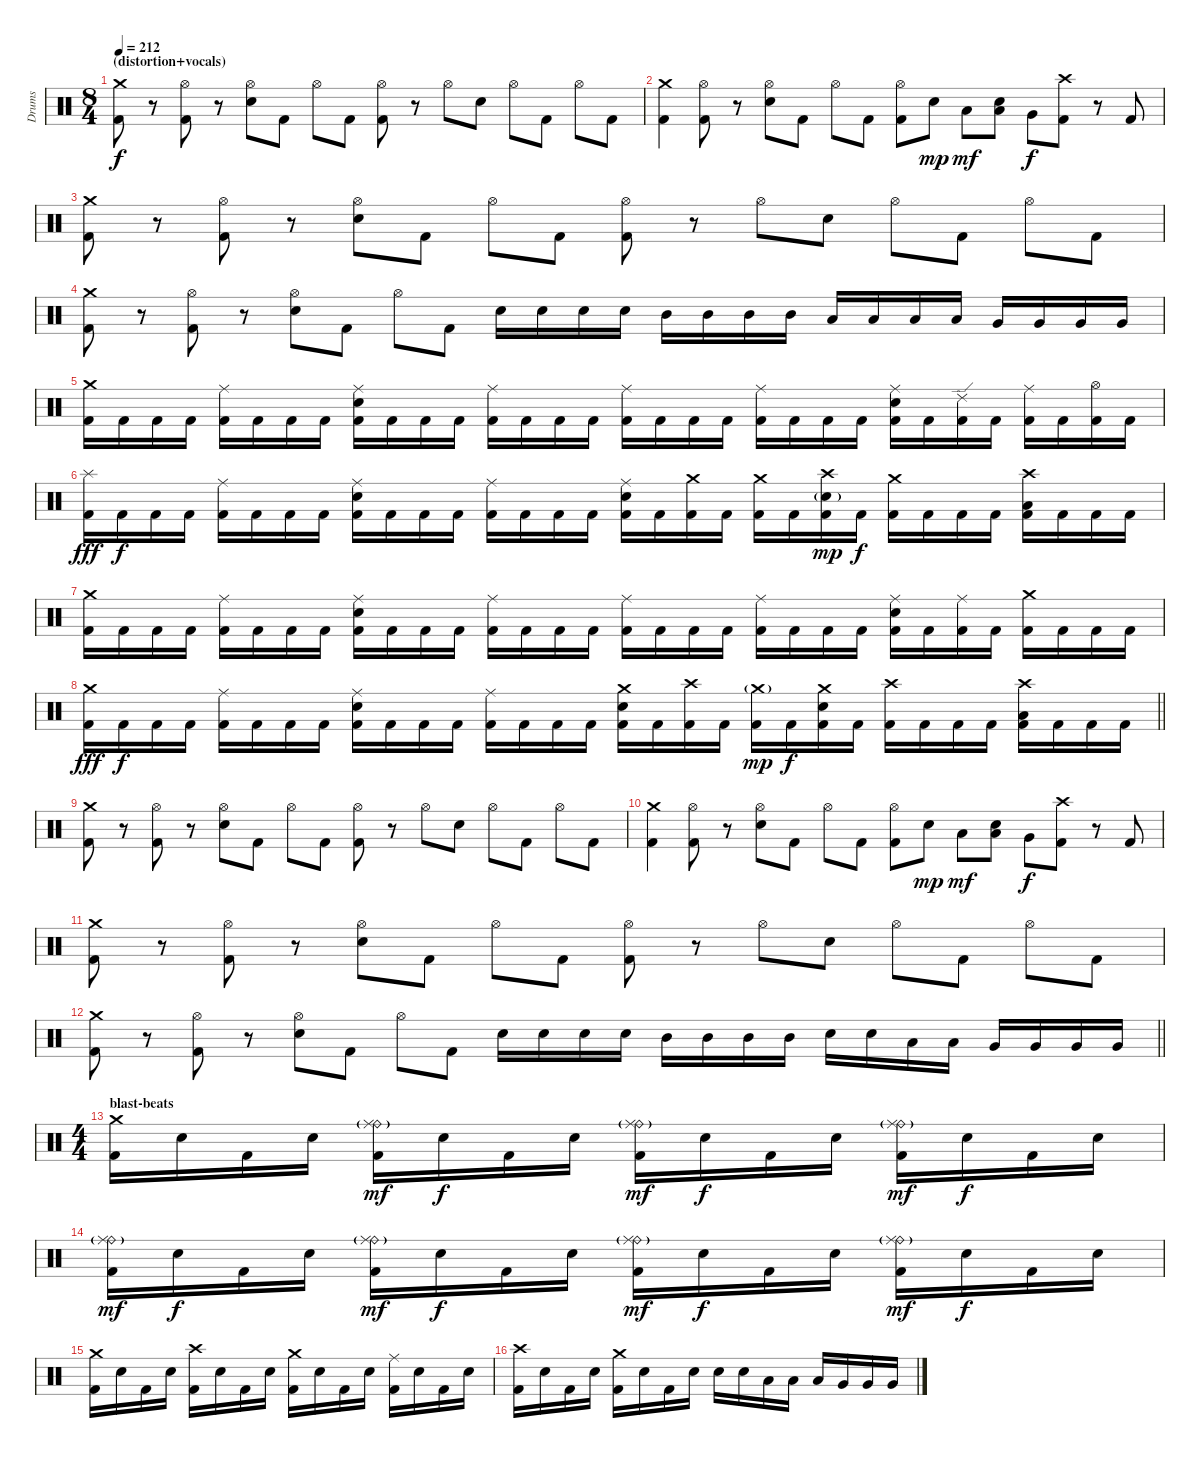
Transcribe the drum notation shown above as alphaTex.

\track ("Drums" "Drums") {instrument percussion}
\staff {score}
\articulation defaults
\ts (8 4)
\section ("" "(distortion+vocals)")
\tempo 212
\clef neutral
\ks c
("Crash medium (hit)" "Kick (hit) 2").8{dy f} r.8 ("Hi-Hat (open)" "Kick (hit) 2").8 r.8 ("Hi-Hat (open)" "Electric Snare (hit)").8 "Kick (hit) 2".8 "Hi-Hat (open)".8 "Kick (hit) 2".8 ("Hi-Hat (open)" "Kick (hit) 2").8 r.8 "Hi-Hat (open)".8 "Electric Snare (hit)".8 "Hi-Hat (open)".8 "Kick (hit) 2".8 "Hi-Hat (open)".8 "Kick (hit) 2".8 |
("Crash medium (hit)" "Kick (hit) 2").4 ("Hi-Hat (open)" "Kick (hit) 2").8 r.8 ("Hi-Hat (open)" "Electric Snare (hit)").8 "Kick (hit) 2".8 "Hi-Hat (open)".8 "Kick (hit) 2".8 ("Hi-Hat (open)" "Kick (hit) 2").8 "Electric Snare (hit)".8{dy mp} "Low Tom (hit)".8{dy mf} ("Low Tom (hit)" "Electric Snare (hit)").8 "Very Low Tom (hit)".8{dy f} ("Crash high (hit)" "Kick (hit) 2").8 r.8 "Kick (hit) 2".8 |
("Crash medium (hit)" "Kick (hit) 2").8 r.8 ("Hi-Hat (open)" "Kick (hit) 2").8 r.8 ("Hi-Hat (open)" "Electric Snare (hit)").8 "Kick (hit) 2".8 "Hi-Hat (open)".8 "Kick (hit) 2".8 ("Hi-Hat (open)" "Kick (hit) 2").8 r.8 "Hi-Hat (open)".8 "Electric Snare (hit)".8 "Hi-Hat (open)".8 "Kick (hit) 2".8 "Hi-Hat (open)".8 "Kick (hit) 2".8 |
("Crash medium (hit)" "Kick (hit) 2").8 r.8 ("Hi-Hat (open)" "Kick (hit) 2").8 r.8 ("Hi-Hat (open)" "Electric Snare (hit)").8 "Kick (hit) 2".8 "Hi-Hat (open)".8 "Kick (hit) 2".8 "Electric Snare (hit)".16 "Electric Snare (hit)".16 "Electric Snare (hit)".16 "Electric Snare (hit)".16 "Mid Tom (hit)".16 "Mid Tom (hit)".16 "Mid Tom (hit)".16 "Mid Tom (hit)".16 "Low Tom (hit)".16 "Low Tom (hit)".16 "Low Tom (hit)".16 "Low Tom (hit)".16 "Very Low Tom (hit)".16 "Very Low Tom (hit)".16 "Very Low Tom (hit)".16 "Very Low Tom (hit)".16 |
("Crash medium (hit)" "Kick (hit) 2").16 "Kick (hit) 2".16 "Kick (hit) 2".16 "Kick (hit) 2".16 ("Ride (middle)" "Kick (hit) 2").16 "Kick (hit) 2".16 "Kick (hit) 2".16 "Kick (hit) 2".16 ("Ride (middle)" "Electric Snare (hit)" "Kick (hit) 2").16 "Kick (hit) 2".16 "Kick (hit) 2".16 "Kick (hit) 2".16 ("Ride (middle)" "Kick (hit) 2").16 "Kick (hit) 2".16 "Kick (hit) 2".16 "Kick (hit) 2".16 ("Ride (middle)" "Kick (hit) 2").16 "Kick (hit) 2".16 "Kick (hit) 2".16 "Kick (hit) 2".16 ("Ride (middle)" "Kick (hit) 2").16 "Kick (hit) 2".16 "Kick (hit) 2".16 "Kick (hit) 2".16 ("Ride (middle)" "Electric Snare (hit)" "Kick (hit) 2").16 "Kick (hit) 2".16 ("Ride (edge) 2" "Kick (hit) 2").16 "Kick (hit) 2".16 ("Ride (middle)" "Kick (hit) 2").16 "Kick (hit) 2".16 ("Hi-Hat (open)" "Kick (hit) 2").16 "Kick (hit) 2".16 |
("Splash (hit)" "Kick (hit) 2").16{dy fff} "Kick (hit) 2".16{dy f} "Kick (hit) 2".16 "Kick (hit) 2".16 ("Ride (middle)" "Kick (hit) 2").16 "Kick (hit) 2".16 "Kick (hit) 2".16 "Kick (hit) 2".16 ("Ride (middle)" "Electric Snare (hit)" "Kick (hit) 2").16 "Kick (hit) 2".16 "Kick (hit) 2".16 "Kick (hit) 2".16 ("Ride (middle)" "Kick (hit) 2").16 "Kick (hit) 2".16 "Kick (hit) 2".16 "Kick (hit) 2".16 ("Ride (middle)" "Electric Snare (hit)" "Kick (hit) 2").16 "Kick (hit) 2".16 ("Crash medium (hit)" "Kick (hit) 2").16 "Kick (hit) 2".16 ("Crash medium (hit)" "Kick (hit) 2").16 "Kick (hit) 2".16 ("Crash high (hit)" "Electric Snare (hit)"{g} "Kick (hit) 2").16{dy mp} "Kick (hit) 2".16{dy f} ("Crash medium (hit)" "Kick (hit) 2").16 "Kick (hit) 2".16 "Kick (hit) 2".16 "Kick (hit) 2".16 ("Crash high (hit)" "Low Tom (hit)" "Kick (hit) 2").16 "Kick (hit) 2".16 "Kick (hit) 2".16 "Kick (hit) 2".16 |
("Crash medium (hit)" "Kick (hit) 2").16 "Kick (hit) 2".16 "Kick (hit) 2".16 "Kick (hit) 2".16 ("Ride (middle)" "Kick (hit) 2").16 "Kick (hit) 2".16 "Kick (hit) 2".16 "Kick (hit) 2".16 ("Ride (middle)" "Electric Snare (hit)" "Kick (hit) 2").16 "Kick (hit) 2".16 "Kick (hit) 2".16 "Kick (hit) 2".16 ("Ride (middle)" "Kick (hit) 2").16 "Kick (hit) 2".16 "Kick (hit) 2".16 "Kick (hit) 2".16 ("Ride (middle)" "Kick (hit) 2").16 "Kick (hit) 2".16 "Kick (hit) 2".16 "Kick (hit) 2".16 ("Ride (middle)" "Kick (hit) 2").16 "Kick (hit) 2".16 "Kick (hit) 2".16 "Kick (hit) 2".16 ("Ride (middle)" "Electric Snare (hit)" "Kick (hit) 2").16 "Kick (hit) 2".16 ("Ride (middle)" "Kick (hit) 2").16 "Kick (hit) 2".16 ("Crash medium (hit)" "Kick (hit) 2").16 "Kick (hit) 2".16 "Kick (hit) 2".16 "Kick (hit) 2".16 |
\barLineRight lightlight
("Crash medium (hit)" "Kick (hit) 2").16{dy fff} "Kick (hit) 2".16{dy f} "Kick (hit) 2".16 "Kick (hit) 2".16 ("Ride (middle)" "Kick (hit) 2").16 "Kick (hit) 2".16 "Kick (hit) 2".16 "Kick (hit) 2".16 ("Ride (middle)" "Electric Snare (hit)" "Kick (hit) 2").16 "Kick (hit) 2".16 "Kick (hit) 2".16 "Kick (hit) 2".16 ("Ride (middle)" "Kick (hit) 2").16 "Kick (hit) 2".16 "Kick (hit) 2".16 "Kick (hit) 2".16 ("Crash medium (hit)" "Electric Snare (hit)" "Kick (hit) 2").16 "Kick (hit) 2".16 ("Crash high (hit)" "Kick (hit) 2").16 "Kick (hit) 2".16 ("Crash medium (hit)"{g} "Kick (hit) 2").16{dy mp} "Kick (hit) 2".16{dy f} ("Crash medium (hit)" "Electric Snare (hit)" "Kick (hit) 2").16 "Kick (hit) 2".16 ("Crash high (hit)" "Kick (hit) 2").16 "Kick (hit) 2".16 "Kick (hit) 2".16 "Kick (hit) 2".16 ("Crash high (hit)" "Low Tom (hit)" "Kick (hit) 2").16 "Kick (hit) 2".16 "Kick (hit) 2".16 "Kick (hit) 2".16 |
("Crash medium (hit)" "Kick (hit) 2").8 r.8 ("Hi-Hat (open)" "Kick (hit) 2").8 r.8 ("Hi-Hat (open)" "Electric Snare (hit)").8 "Kick (hit) 2".8 "Hi-Hat (open)".8 "Kick (hit) 2".8 ("Hi-Hat (open)" "Kick (hit) 2").8 r.8 "Hi-Hat (open)".8 "Electric Snare (hit)".8 "Hi-Hat (open)".8 "Kick (hit) 2".8 "Hi-Hat (open)".8 "Kick (hit) 2".8 |
("Crash medium (hit)" "Kick (hit) 2").4 ("Hi-Hat (open)" "Kick (hit) 2").8 r.8 ("Hi-Hat (open)" "Electric Snare (hit)").8 "Kick (hit) 2".8 "Hi-Hat (open)".8 "Kick (hit) 2".8 ("Hi-Hat (open)" "Kick (hit) 2").8 "Electric Snare (hit)".8{dy mp} "Low Tom (hit)".8{dy mf} ("Low Tom (hit)" "Electric Snare (hit)").8 "Very Low Tom (hit)".8{dy f} ("Crash high (hit)" "Kick (hit) 2").8 r.8 "Kick (hit) 2".8 |
("Crash medium (hit)" "Kick (hit) 2").8 r.8 ("Hi-Hat (open)" "Kick (hit) 2").8 r.8 ("Hi-Hat (open)" "Electric Snare (hit)").8 "Kick (hit) 2".8 "Hi-Hat (open)".8 "Kick (hit) 2".8 ("Hi-Hat (open)" "Kick (hit) 2").8 r.8 "Hi-Hat (open)".8 "Electric Snare (hit)".8 "Hi-Hat (open)".8 "Kick (hit) 2".8 "Hi-Hat (open)".8 "Kick (hit) 2".8 |
\barLineRight lightlight
("Crash medium (hit)" "Kick (hit) 2").8 r.8 ("Hi-Hat (open)" "Kick (hit) 2").8 r.8 ("Hi-Hat (open)" "Electric Snare (hit)").8 "Kick (hit) 2".8 "Hi-Hat (open)".8 "Kick (hit) 2".8 "Electric Snare (hit)".16 "Electric Snare (hit)".16 "Electric Snare (hit)".16 "Electric Snare (hit)".16 "Mid Tom (hit)".16 "Mid Tom (hit)".16 "Mid Tom (hit)".16 "Mid Tom (hit)".16 "Electric Snare (hit)".16 "Electric Snare (hit)".16 "Low Tom (hit)".16 "Low Tom (hit)".16 "Very Low Tom (hit)".16 "Very Low Tom (hit)".16 "Very Low Tom (hit)".16 "Very Low Tom (hit)".16 |
\ts (4 4)
\section ("" "blast-beats")
("Crash medium (hit)" "Kick (hit) 2").16 "Electric Snare (hit)".16 "Kick (hit) 2".16 "Electric Snare (hit)".16 ("Ride (bell)"{g} "Ride (middle)" "Kick (hit) 2").16{dy mf} "Electric Snare (hit)".16{dy f} "Kick (hit) 2".16 "Electric Snare (hit)".16 ("Ride (bell)"{g} "Ride (middle)" "Kick (hit) 2").16{dy mf} "Electric Snare (hit)".16{dy f} "Kick (hit) 2".16 "Electric Snare (hit)".16 ("Ride (bell)"{g} "Ride (middle)" "Kick (hit) 2").16{dy mf} "Electric Snare (hit)".16{dy f} "Kick (hit) 2".16 "Electric Snare (hit)".16 |
("Ride (bell)"{g} "Ride (middle)" "Kick (hit) 2").16{dy mf} "Electric Snare (hit)".16{dy f} "Kick (hit) 2".16 "Electric Snare (hit)".16 ("Ride (bell)"{g} "Ride (middle)" "Kick (hit) 2").16{dy mf} "Electric Snare (hit)".16{dy f} "Kick (hit) 2".16 "Electric Snare (hit)".16 ("Ride (bell)"{g} "Ride (middle)" "Kick (hit) 2").16{dy mf} "Electric Snare (hit)".16{dy f} "Kick (hit) 2".16 "Electric Snare (hit)".16 ("Ride (bell)"{g} "Ride (middle)" "Kick (hit) 2").16{dy mf} "Electric Snare (hit)".16{dy f} "Kick (hit) 2".16 "Electric Snare (hit)".16 |
("Crash medium (hit)" "Kick (hit) 2").16 "Electric Snare (hit)".16 "Kick (hit) 2".16 "Electric Snare (hit)".16 ("Crash high (hit)" "Kick (hit) 2").16 "Electric Snare (hit)".16 "Kick (hit) 2".16 "Electric Snare (hit)".16 ("Crash medium (hit)" "Kick (hit) 2").16 "Electric Snare (hit)".16 "Kick (hit) 2".16 "Electric Snare (hit)".16 ("Ride (middle)" "Kick (hit) 2").16 "Electric Snare (hit)".16 "Kick (hit) 2".16 "Electric Snare (hit)".16 |
("Crash high (hit)" "Kick (hit) 2").16 "Electric Snare (hit)".16 "Kick (hit) 2".16 "Electric Snare (hit)".16 ("Crash medium (hit)" "Kick (hit) 2").16 "Electric Snare (hit)".16 "Kick (hit) 2".16 "Electric Snare (hit)".16 "Electric Snare (hit)".16 "Electric Snare (hit)".16 "Low Tom (hit)".16 "Low Tom (hit)".16 "Low Tom (hit)".16 "Very Low Tom (hit)".16 "Very Low Tom (hit)".16 "Very Low Tom (hit)".16
